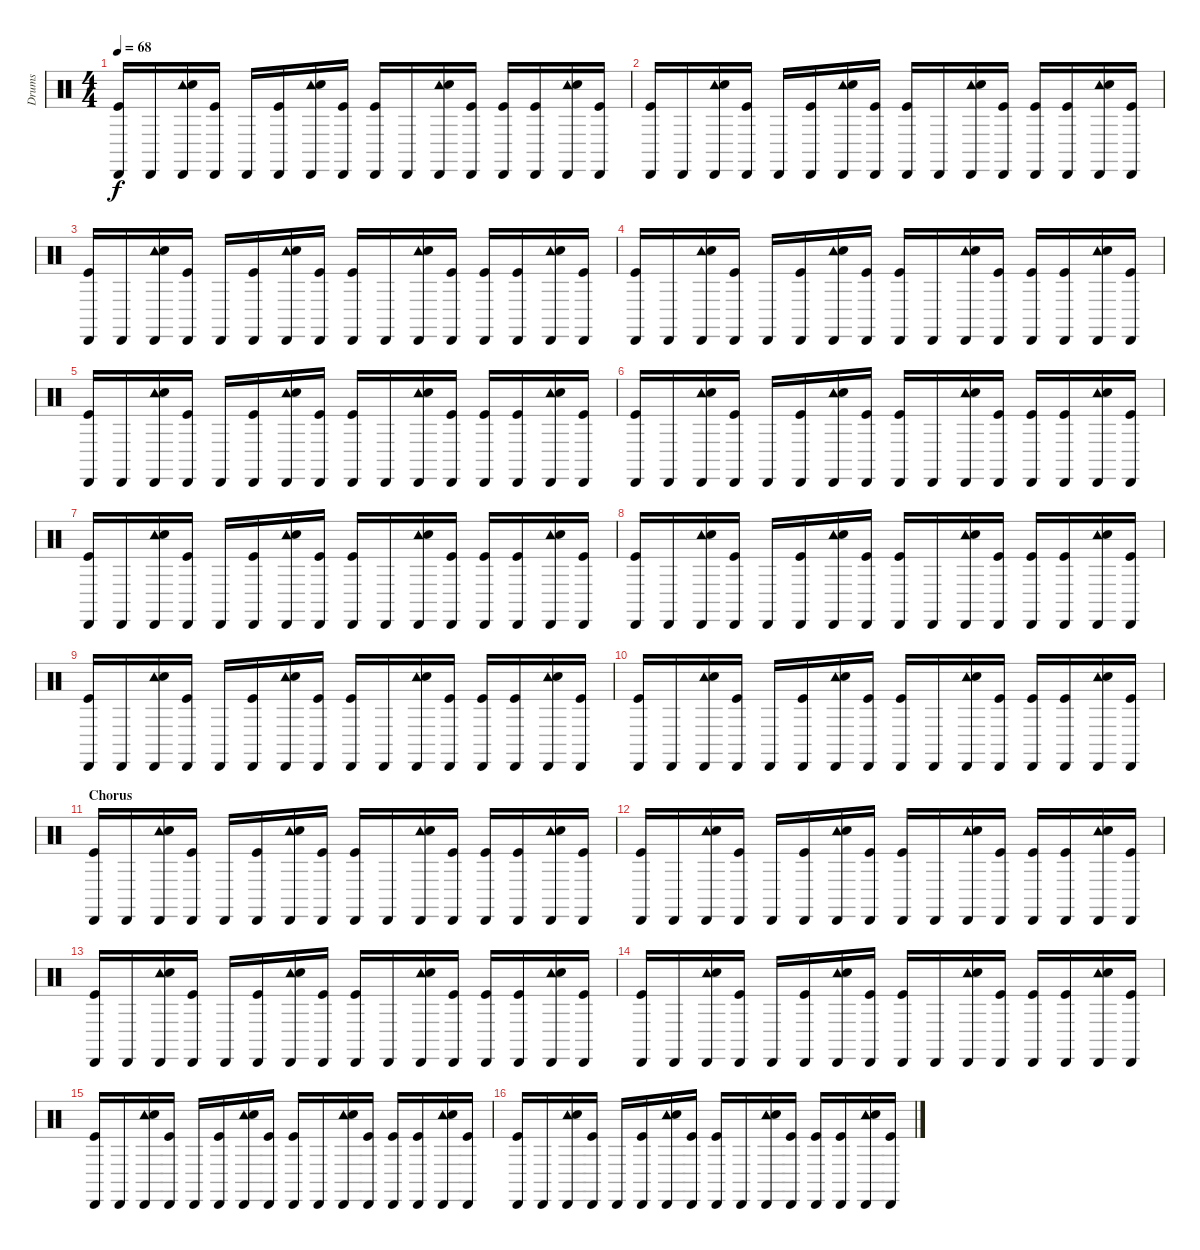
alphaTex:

\track ("Drums" "Drums") {instrument percussion}
\staff {score}
\articulation defaults
\ts (4 4)
\tempo 68
\clef neutral
\ks c
("Cabasa (hit)" "Kick (hit)").16{dy f} "Cabasa (hit)".16 ("Cabasa (hit)" "Tambourine (hit)" "Electric Snare (hit)").16 ("Cabasa (hit)" "Kick (hit)").16 "Cabasa (hit)".16 ("Cabasa (hit)" "Kick (hit)").16 ("Cabasa (hit)" "Tambourine (hit)" "Electric Snare (hit)").16 ("Cabasa (hit)" "Kick (hit)").16 ("Cabasa (hit)" "Kick (hit)").16 "Cabasa (hit)".16 ("Cabasa (hit)" "Tambourine (hit)" "Electric Snare (hit)").16 ("Cabasa (hit)" "Kick (hit)").16 ("Cabasa (hit)" "Kick (hit)").16 ("Cabasa (hit)" "Kick (hit)").16 ("Cabasa (hit)" "Tambourine (hit)" "Electric Snare (hit)").16 ("Cabasa (hit)" "Kick (hit)").16 |
("Cabasa (hit)" "Kick (hit)").16 "Cabasa (hit)".16 ("Cabasa (hit)" "Tambourine (hit)" "Electric Snare (hit)").16 ("Cabasa (hit)" "Kick (hit)").16 "Cabasa (hit)".16 ("Cabasa (hit)" "Kick (hit)").16 ("Cabasa (hit)" "Tambourine (hit)" "Electric Snare (hit)").16 ("Cabasa (hit)" "Kick (hit)").16 ("Cabasa (hit)" "Kick (hit)").16 "Cabasa (hit)".16 ("Cabasa (hit)" "Tambourine (hit)" "Electric Snare (hit)").16 ("Cabasa (hit)" "Kick (hit)").16 ("Cabasa (hit)" "Kick (hit)").16 ("Cabasa (hit)" "Kick (hit)").16 ("Cabasa (hit)" "Tambourine (hit)" "Electric Snare (hit)").16 ("Cabasa (hit)" "Kick (hit)").16 |
("Cabasa (hit)" "Kick (hit)").16 "Cabasa (hit)".16 ("Cabasa (hit)" "Tambourine (hit)" "Electric Snare (hit)").16 ("Cabasa (hit)" "Kick (hit)").16 "Cabasa (hit)".16 ("Cabasa (hit)" "Kick (hit)").16 ("Cabasa (hit)" "Tambourine (hit)" "Electric Snare (hit)").16 ("Cabasa (hit)" "Kick (hit)").16 ("Cabasa (hit)" "Kick (hit)").16 "Cabasa (hit)".16 ("Cabasa (hit)" "Tambourine (hit)" "Electric Snare (hit)").16 ("Cabasa (hit)" "Kick (hit)").16 ("Cabasa (hit)" "Kick (hit)").16 ("Cabasa (hit)" "Kick (hit)").16 ("Cabasa (hit)" "Tambourine (hit)" "Electric Snare (hit)").16 ("Cabasa (hit)" "Kick (hit)").16 |
("Cabasa (hit)" "Kick (hit)").16 "Cabasa (hit)".16 ("Cabasa (hit)" "Tambourine (hit)" "Electric Snare (hit)").16 ("Cabasa (hit)" "Kick (hit)").16 "Cabasa (hit)".16 ("Cabasa (hit)" "Kick (hit)").16 ("Cabasa (hit)" "Tambourine (hit)" "Electric Snare (hit)").16 ("Cabasa (hit)" "Kick (hit)").16 ("Cabasa (hit)" "Kick (hit)").16 "Cabasa (hit)".16 ("Cabasa (hit)" "Tambourine (hit)" "Electric Snare (hit)").16 ("Cabasa (hit)" "Kick (hit)").16 ("Cabasa (hit)" "Kick (hit)").16 ("Cabasa (hit)" "Kick (hit)").16 ("Cabasa (hit)" "Tambourine (hit)" "Electric Snare (hit)").16 ("Cabasa (hit)" "Kick (hit)").16 |
("Cabasa (hit)" "Kick (hit)").16 "Cabasa (hit)".16 ("Cabasa (hit)" "Tambourine (hit)" "Electric Snare (hit)").16 ("Cabasa (hit)" "Kick (hit)").16 "Cabasa (hit)".16 ("Cabasa (hit)" "Kick (hit)").16 ("Cabasa (hit)" "Tambourine (hit)" "Electric Snare (hit)").16 ("Cabasa (hit)" "Kick (hit)").16 ("Cabasa (hit)" "Kick (hit)").16 "Cabasa (hit)".16 ("Cabasa (hit)" "Tambourine (hit)" "Electric Snare (hit)").16 ("Cabasa (hit)" "Kick (hit)").16 ("Cabasa (hit)" "Kick (hit)").16 ("Cabasa (hit)" "Kick (hit)").16 ("Cabasa (hit)" "Tambourine (hit)" "Electric Snare (hit)").16 ("Cabasa (hit)" "Kick (hit)").16 |
("Cabasa (hit)" "Kick (hit)").16 "Cabasa (hit)".16 ("Cabasa (hit)" "Tambourine (hit)" "Electric Snare (hit)").16 ("Cabasa (hit)" "Kick (hit)").16 "Cabasa (hit)".16 ("Cabasa (hit)" "Kick (hit)").16 ("Cabasa (hit)" "Tambourine (hit)" "Electric Snare (hit)").16 ("Cabasa (hit)" "Kick (hit)").16 ("Cabasa (hit)" "Kick (hit)").16 "Cabasa (hit)".16 ("Cabasa (hit)" "Tambourine (hit)" "Electric Snare (hit)").16 ("Cabasa (hit)" "Kick (hit)").16 ("Cabasa (hit)" "Kick (hit)").16 ("Cabasa (hit)" "Kick (hit)").16 ("Cabasa (hit)" "Tambourine (hit)" "Electric Snare (hit)").16 ("Cabasa (hit)" "Kick (hit)").16 |
("Cabasa (hit)" "Kick (hit)").16 "Cabasa (hit)".16 ("Cabasa (hit)" "Tambourine (hit)" "Electric Snare (hit)").16 ("Cabasa (hit)" "Kick (hit)").16 "Cabasa (hit)".16 ("Cabasa (hit)" "Kick (hit)").16 ("Cabasa (hit)" "Tambourine (hit)" "Electric Snare (hit)").16 ("Cabasa (hit)" "Kick (hit)").16 ("Cabasa (hit)" "Kick (hit)").16 "Cabasa (hit)".16 ("Cabasa (hit)" "Tambourine (hit)" "Electric Snare (hit)").16 ("Cabasa (hit)" "Kick (hit)").16 ("Cabasa (hit)" "Kick (hit)").16 ("Cabasa (hit)" "Kick (hit)").16 ("Cabasa (hit)" "Tambourine (hit)" "Electric Snare (hit)").16 ("Cabasa (hit)" "Kick (hit)").16 |
("Cabasa (hit)" "Kick (hit)").16 "Cabasa (hit)".16 ("Cabasa (hit)" "Tambourine (hit)" "Electric Snare (hit)").16 ("Cabasa (hit)" "Kick (hit)").16 "Cabasa (hit)".16 ("Cabasa (hit)" "Kick (hit)").16 ("Cabasa (hit)" "Tambourine (hit)" "Electric Snare (hit)").16 ("Cabasa (hit)" "Kick (hit)").16 ("Cabasa (hit)" "Kick (hit)").16 "Cabasa (hit)".16 ("Cabasa (hit)" "Tambourine (hit)" "Electric Snare (hit)").16 ("Cabasa (hit)" "Kick (hit)").16 ("Cabasa (hit)" "Kick (hit)").16 ("Cabasa (hit)" "Kick (hit)").16 ("Cabasa (hit)" "Tambourine (hit)" "Electric Snare (hit)").16 ("Cabasa (hit)" "Kick (hit)").16 |
("Cabasa (hit)" "Kick (hit)").16 "Cabasa (hit)".16 ("Cabasa (hit)" "Tambourine (hit)" "Electric Snare (hit)").16 ("Cabasa (hit)" "Kick (hit)").16 "Cabasa (hit)".16 ("Cabasa (hit)" "Kick (hit)").16 ("Cabasa (hit)" "Tambourine (hit)" "Electric Snare (hit)").16 ("Cabasa (hit)" "Kick (hit)").16 ("Cabasa (hit)" "Kick (hit)").16 "Cabasa (hit)".16 ("Cabasa (hit)" "Tambourine (hit)" "Electric Snare (hit)").16 ("Cabasa (hit)" "Kick (hit)").16 ("Cabasa (hit)" "Kick (hit)").16 ("Cabasa (hit)" "Kick (hit)").16 ("Cabasa (hit)" "Tambourine (hit)" "Electric Snare (hit)").16 ("Cabasa (hit)" "Kick (hit)").16 |
("Cabasa (hit)" "Kick (hit)").16 "Cabasa (hit)".16 ("Cabasa (hit)" "Tambourine (hit)" "Electric Snare (hit)").16 ("Cabasa (hit)" "Kick (hit)").16 "Cabasa (hit)".16 ("Cabasa (hit)" "Kick (hit)").16 ("Cabasa (hit)" "Tambourine (hit)" "Electric Snare (hit)").16 ("Cabasa (hit)" "Kick (hit)").16 ("Cabasa (hit)" "Kick (hit)").16 "Cabasa (hit)".16 ("Cabasa (hit)" "Tambourine (hit)" "Electric Snare (hit)").16 ("Cabasa (hit)" "Kick (hit)").16 ("Cabasa (hit)" "Kick (hit)").16 ("Cabasa (hit)" "Kick (hit)").16 ("Cabasa (hit)" "Tambourine (hit)" "Electric Snare (hit)").16 ("Cabasa (hit)" "Kick (hit)").16 |
\section ("" "Chorus")
("Cabasa (hit)" "Kick (hit)").16 "Cabasa (hit)".16 ("Cabasa (hit)" "Tambourine (hit)" "Electric Snare (hit)").16 ("Cabasa (hit)" "Kick (hit)").16 "Cabasa (hit)".16 ("Cabasa (hit)" "Kick (hit)").16 ("Cabasa (hit)" "Tambourine (hit)" "Electric Snare (hit)").16 ("Cabasa (hit)" "Kick (hit)").16 ("Cabasa (hit)" "Kick (hit)").16 "Cabasa (hit)".16 ("Cabasa (hit)" "Tambourine (hit)" "Electric Snare (hit)").16 ("Cabasa (hit)" "Kick (hit)").16 ("Cabasa (hit)" "Kick (hit)").16 ("Cabasa (hit)" "Kick (hit)").16 ("Cabasa (hit)" "Tambourine (hit)" "Electric Snare (hit)").16 ("Cabasa (hit)" "Kick (hit)").16 |
("Cabasa (hit)" "Kick (hit)").16 "Cabasa (hit)".16 ("Cabasa (hit)" "Tambourine (hit)" "Electric Snare (hit)").16 ("Cabasa (hit)" "Kick (hit)").16 "Cabasa (hit)".16 ("Cabasa (hit)" "Kick (hit)").16 ("Cabasa (hit)" "Tambourine (hit)" "Electric Snare (hit)").16 ("Cabasa (hit)" "Kick (hit)").16 ("Cabasa (hit)" "Kick (hit)").16 "Cabasa (hit)".16 ("Cabasa (hit)" "Tambourine (hit)" "Electric Snare (hit)").16 ("Cabasa (hit)" "Kick (hit)").16 ("Cabasa (hit)" "Kick (hit)").16 ("Cabasa (hit)" "Kick (hit)").16 ("Cabasa (hit)" "Tambourine (hit)" "Electric Snare (hit)").16 ("Cabasa (hit)" "Kick (hit)").16 |
("Cabasa (hit)" "Kick (hit)").16 "Cabasa (hit)".16 ("Cabasa (hit)" "Tambourine (hit)" "Electric Snare (hit)").16 ("Cabasa (hit)" "Kick (hit)").16 "Cabasa (hit)".16 ("Cabasa (hit)" "Kick (hit)").16 ("Cabasa (hit)" "Tambourine (hit)" "Electric Snare (hit)").16 ("Cabasa (hit)" "Kick (hit)").16 ("Cabasa (hit)" "Kick (hit)").16 "Cabasa (hit)".16 ("Cabasa (hit)" "Tambourine (hit)" "Electric Snare (hit)").16 ("Cabasa (hit)" "Kick (hit)").16 ("Cabasa (hit)" "Kick (hit)").16 ("Cabasa (hit)" "Kick (hit)").16 ("Cabasa (hit)" "Tambourine (hit)" "Electric Snare (hit)").16 ("Cabasa (hit)" "Kick (hit)").16 |
("Cabasa (hit)" "Kick (hit)").16 "Cabasa (hit)".16 ("Cabasa (hit)" "Tambourine (hit)" "Electric Snare (hit)").16 ("Cabasa (hit)" "Kick (hit)").16 "Cabasa (hit)".16 ("Cabasa (hit)" "Kick (hit)").16 ("Cabasa (hit)" "Tambourine (hit)" "Electric Snare (hit)").16 ("Cabasa (hit)" "Kick (hit)").16 ("Cabasa (hit)" "Kick (hit)").16 "Cabasa (hit)".16 ("Cabasa (hit)" "Tambourine (hit)" "Electric Snare (hit)").16 ("Cabasa (hit)" "Kick (hit)").16 ("Cabasa (hit)" "Kick (hit)").16 ("Cabasa (hit)" "Kick (hit)").16 ("Cabasa (hit)" "Tambourine (hit)" "Electric Snare (hit)").16 ("Cabasa (hit)" "Kick (hit)").16 |
("Cabasa (hit)" "Kick (hit)").16 "Cabasa (hit)".16 ("Cabasa (hit)" "Tambourine (hit)" "Electric Snare (hit)").16 ("Cabasa (hit)" "Kick (hit)").16 "Cabasa (hit)".16 ("Cabasa (hit)" "Kick (hit)").16 ("Cabasa (hit)" "Tambourine (hit)" "Electric Snare (hit)").16 ("Cabasa (hit)" "Kick (hit)").16 ("Cabasa (hit)" "Kick (hit)").16 "Cabasa (hit)".16 ("Cabasa (hit)" "Tambourine (hit)" "Electric Snare (hit)").16 ("Cabasa (hit)" "Kick (hit)").16 ("Cabasa (hit)" "Kick (hit)").16 ("Cabasa (hit)" "Kick (hit)").16 ("Cabasa (hit)" "Tambourine (hit)" "Electric Snare (hit)").16 ("Cabasa (hit)" "Kick (hit)").16 |
("Cabasa (hit)" "Kick (hit)").16 "Cabasa (hit)".16 ("Cabasa (hit)" "Tambourine (hit)" "Electric Snare (hit)").16 ("Cabasa (hit)" "Kick (hit)").16 "Cabasa (hit)".16 ("Cabasa (hit)" "Kick (hit)").16 ("Cabasa (hit)" "Tambourine (hit)" "Electric Snare (hit)").16 ("Cabasa (hit)" "Kick (hit)").16 ("Cabasa (hit)" "Kick (hit)").16 "Cabasa (hit)".16 ("Cabasa (hit)" "Tambourine (hit)" "Electric Snare (hit)").16 ("Cabasa (hit)" "Kick (hit)").16 ("Cabasa (hit)" "Kick (hit)").16 ("Cabasa (hit)" "Kick (hit)").16 ("Cabasa (hit)" "Tambourine (hit)" "Electric Snare (hit)").16 ("Cabasa (hit)" "Kick (hit)").16
